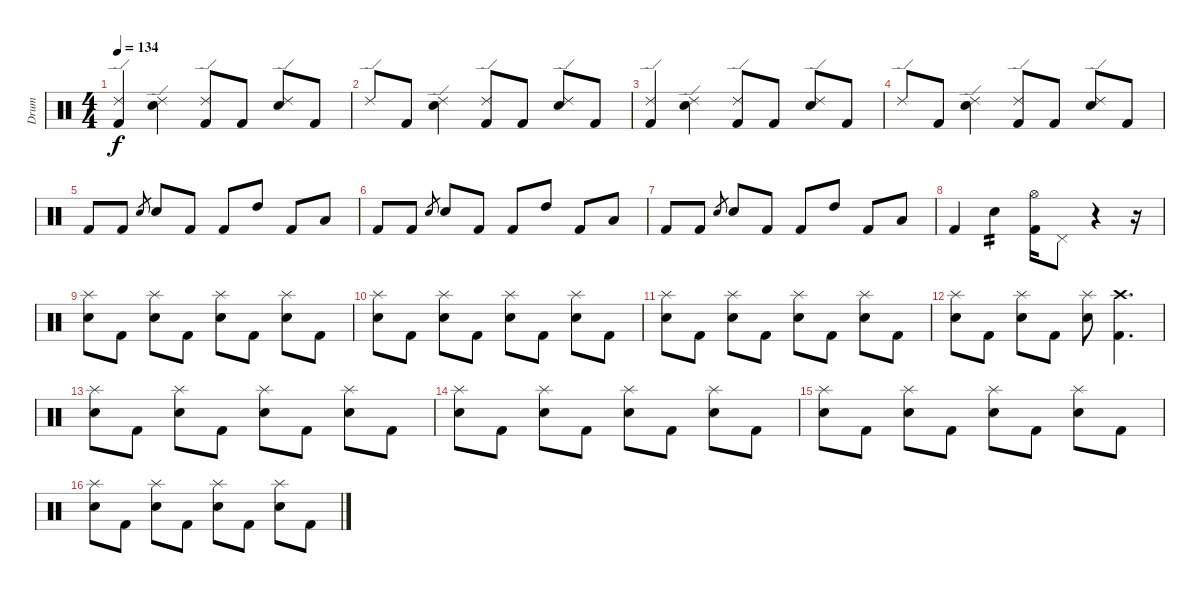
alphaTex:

\track ("Drum" "Drum") {instrument percussion}
\staff {score}
\articulation defaults
\ts (4 4)
\tempo 134
\clef neutral
\ks c
("Kick (hit) 2" "Ride (edge) 2").4{dy f} ("Electric Snare (hit)" "Ride (edge) 2").4 ("Ride (edge) 2" "Kick (hit) 2").8 "Kick (hit) 2".8 ("Electric Snare (hit)" "Ride (edge) 2").8 "Kick (hit) 2".8 |
"Ride (edge) 2".8 "Kick (hit) 2".8 ("Electric Snare (hit)" "Ride (edge) 2").4 ("Kick (hit) 2" "Ride (edge) 2").8 "Kick (hit) 2".8 ("Ride (edge) 2" "Electric Snare (hit)").8 "Kick (hit) 2".8 |
("Kick (hit) 2" "Ride (edge) 2").4 ("Electric Snare (hit)" "Ride (edge) 2").4 ("Ride (edge) 2" "Kick (hit) 2").8 "Kick (hit) 2".8 ("Electric Snare (hit)" "Ride (edge) 2").8 "Kick (hit) 2".8 |
"Ride (edge) 2".8 "Kick (hit) 2".8 ("Electric Snare (hit)" "Ride (edge) 2").4 ("Kick (hit) 2" "Ride (edge) 2").8 "Kick (hit) 2".8 ("Ride (edge) 2" "Electric Snare (hit)").8 "Kick (hit) 2".8 |
"Kick (hit) 2".8 "Kick (hit) 2".8 "Electric Snare (hit)".8{gr} "Electric Snare (hit)".8 "Kick (hit) 2".8 "Kick (hit) 2".8 "High Tom (hit)".8 "Kick (hit) 2".8 "Low Tom (hit)".8 |
"Kick (hit) 2".8 "Kick (hit) 2".8 "Electric Snare (hit)".8{gr} "Electric Snare (hit)".8 "Kick (hit) 2".8 "Kick (hit) 2".8 "High Tom (hit)".8 "Kick (hit) 2".8 "Low Tom (hit)".8 |
"Kick (hit) 2".8 "Kick (hit) 2".8 "Electric Snare (hit)".8{gr} "Electric Snare (hit)".8 "Kick (hit) 2".8 "Kick (hit) 2".8 "High Tom (hit)".8 "Kick (hit) 2".8 "Low Tom (hit)".8 |
"Kick (hit) 2".4 "Electric Snare (hit)".4{tp 2} ("Kick (hit) 2" "Hi-Hat (open)").16 "Pedal Hi-Hat (hit)".8 r.4 r.16 |
("Electric Snare (hit)" "Splash (hit)").8 "Kick (hit) 2".8 ("Electric Snare (hit)" "Splash (hit)").8 "Kick (hit) 2".8 ("Electric Snare (hit)" "Splash (hit)").8 "Kick (hit) 2".8 ("Electric Snare (hit)" "Splash (hit)").8 "Kick (hit) 2".8 |
("Electric Snare (hit)" "Splash (hit)").8 "Kick (hit) 2".8 ("Electric Snare (hit)" "Splash (hit)").8 "Kick (hit) 2".8 ("Electric Snare (hit)" "Splash (hit)").8 "Kick (hit) 2".8 ("Electric Snare (hit)" "Splash (hit)").8 "Kick (hit) 2".8 |
("Electric Snare (hit)" "Splash (hit)").8 "Kick (hit) 2".8 ("Electric Snare (hit)" "Splash (hit)").8 "Kick (hit) 2".8 ("Electric Snare (hit)" "Splash (hit)").8 "Kick (hit) 2".8 ("Electric Snare (hit)" "Splash (hit)").8 "Kick (hit) 2".8 |
("Electric Snare (hit)" "Splash (hit)").8 "Kick (hit) 2".8 ("Electric Snare (hit)" "Splash (hit)").8 "Kick (hit) 2".8 ("Electric Snare (hit)" "Splash (hit)").8 ("Kick (hit) 2" "Crash high (hit)").4{d} |
("Electric Snare (hit)" "Splash (hit)").8 "Kick (hit) 2".8 ("Electric Snare (hit)" "Splash (hit)").8 "Kick (hit) 2".8 ("Electric Snare (hit)" "Splash (hit)").8 "Kick (hit) 2".8 ("Electric Snare (hit)" "Splash (hit)").8 "Kick (hit) 2".8 |
("Electric Snare (hit)" "Splash (hit)").8 "Kick (hit) 2".8 ("Electric Snare (hit)" "Splash (hit)").8 "Kick (hit) 2".8 ("Electric Snare (hit)" "Splash (hit)").8 "Kick (hit) 2".8 ("Electric Snare (hit)" "Splash (hit)").8 "Kick (hit) 2".8 |
("Electric Snare (hit)" "Splash (hit)").8 "Kick (hit) 2".8 ("Electric Snare (hit)" "Splash (hit)").8 "Kick (hit) 2".8 ("Electric Snare (hit)" "Splash (hit)").8 "Kick (hit) 2".8 ("Electric Snare (hit)" "Splash (hit)").8 "Kick (hit) 2".8 |
("Electric Snare (hit)" "Splash (hit)").8 "Kick (hit) 2".8 ("Electric Snare (hit)" "Splash (hit)").8 "Kick (hit) 2".8 ("Electric Snare (hit)" "Splash (hit)").8 "Kick (hit) 2".8 ("Electric Snare (hit)" "Splash (hit)").8 "Kick (hit) 2".8
